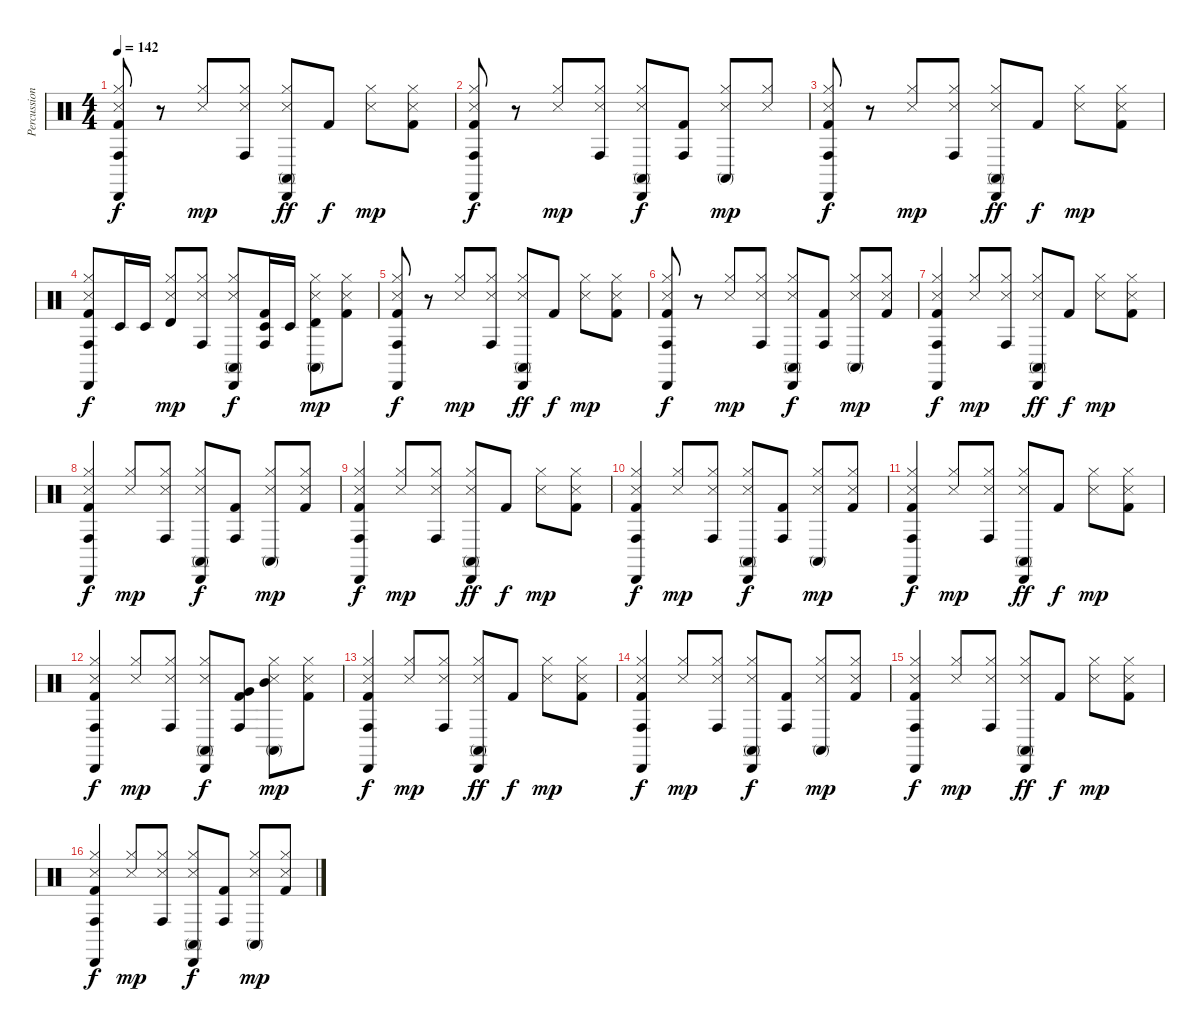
\track ("Percussion" "Percussion") {instrument percussion}
\staff {score}
\articulation defaults
\ts (4 4)
\tempo 142
\clef neutral
\ks c
("Conga high (hit)" "Cabasa (hit)" "Hi-Hat (closed)" "Snare (side stick) 3" "Kick (hit) 2").8{dy f} r.8 ("Hi-Hat (closed)" "Snare (side stick) 3").8{dy mp} ("Conga high (hit)" "Hi-Hat (closed)" "Snare (side stick) 3").8 ("Conga high (mute)" "Cabasa (hit)" "Hi-Hat (closed)" "Snare (side stick) 3").8{dy ff} "Kick (hit) 2".8{dy f} ("Hi-Hat (closed)" "Snare (side stick) 3").8{dy mp} ("Hi-Hat (closed)" "Snare (side stick) 3" "Kick (hit) 2").8 |
("Conga high (hit)" "Cabasa (hit)" "Hi-Hat (closed)" "Snare (side stick) 3" "Kick (hit) 2").8{dy f} r.8 ("Hi-Hat (closed)" "Snare (side stick) 3").8{dy mp} ("Conga high (hit)" "Hi-Hat (closed)" "Snare (side stick) 3").8 ("Conga high (mute)" "Cabasa (hit)" "Hi-Hat (closed)" "Snare (side stick) 3").8{dy f} ("Conga high (hit)" "Kick (hit) 2").8 ("Conga high (mute)" "Hi-Hat (closed)" "Snare (side stick) 3").8{dy mp} ("Hi-Hat (closed)" "Snare (side stick) 3").8 |
("Conga high (hit)" "Cabasa (hit)" "Hi-Hat (closed)" "Snare (side stick) 3" "Kick (hit) 2").8{dy f} r.8 ("Hi-Hat (closed)" "Snare (side stick) 3").8{dy mp} ("Conga high (hit)" "Hi-Hat (closed)" "Snare (side stick) 3").8 ("Conga high (mute)" "Cabasa (hit)" "Hi-Hat (closed)" "Snare (side stick) 3").8{dy ff} "Kick (hit) 2".8{dy f} ("Hi-Hat (closed)" "Snare (side stick) 3").8{dy mp} ("Hi-Hat (closed)" "Snare (side stick) 3" "Kick (hit) 2").8 |
("Conga high (hit)" "Cabasa (hit)" "Hi-Hat (closed)" "Snare (side stick) 3" "Kick (hit) 2").8{dy f} "Timbale low (hit)".16 "Timbale low (hit)".16 ("Timbale high (hit)" "Hi-Hat (closed)" "Snare (side stick) 3").8{dy mp} ("Conga high (hit)" "Hi-Hat (closed)" "Snare (side stick) 3").8 ("Conga high (mute)" "Cabasa (hit)" "Hi-Hat (closed)" "Snare (side stick) 3").8{dy f} ("Timbale low (hit)" "Conga high (hit)" "Kick (hit) 2").16 "Timbale low (hit)".16 ("Timbale high (hit)" "Conga high (mute)" "Hi-Hat (closed)" "Snare (side stick) 3").8{dy mp} ("Hi-Hat (closed)" "Snare (side stick) 3" "Kick (hit) 2").8 |
("Conga high (hit)" "Cabasa (hit)" "Hi-Hat (closed)" "Snare (side stick) 3" "Kick (hit) 2").8{dy f} r.8 ("Hi-Hat (closed)" "Snare (side stick) 3").8{dy mp} ("Conga high (hit)" "Hi-Hat (closed)" "Snare (side stick) 3").8 ("Conga high (mute)" "Cabasa (hit)" "Hi-Hat (closed)" "Snare (side stick) 3").8{dy ff} "Kick (hit) 2".8{dy f} ("Hi-Hat (closed)" "Snare (side stick) 3").8{dy mp} ("Hi-Hat (closed)" "Snare (side stick) 3" "Kick (hit) 2").8 |
("Conga high (hit)" "Cabasa (hit)" "Hi-Hat (closed)" "Snare (side stick) 3" "Kick (hit) 2").8{dy f} r.8 ("Hi-Hat (closed)" "Snare (side stick) 3").8{dy mp} ("Conga high (hit)" "Hi-Hat (closed)" "Snare (side stick) 3").8 ("Conga high (mute)" "Cabasa (hit)" "Hi-Hat (closed)" "Snare (side stick) 3").8{dy f} ("Conga high (hit)" "Kick (hit) 2").8 ("Conga high (mute)" "Hi-Hat (closed)" "Snare (side stick) 3").8{dy mp} ("Hi-Hat (closed)" "Snare (side stick) 3" "Kick (hit) 2").8 |
("Conga high (hit)" "Cabasa (hit)" "Hi-Hat (closed)" "Snare (side stick) 3" "Kick (hit) 2").4{dy f} ("Hi-Hat (closed)" "Snare (side stick) 3").8{dy mp} ("Conga high (hit)" "Hi-Hat (closed)" "Snare (side stick) 3").8 ("Conga high (mute)" "Cabasa (hit)" "Hi-Hat (closed)" "Snare (side stick) 3").8{dy ff} "Kick (hit) 2".8{dy f} ("Hi-Hat (closed)" "Snare (side stick) 3").8{dy mp} ("Hi-Hat (closed)" "Snare (side stick) 3" "Kick (hit) 2").8 |
("Conga high (hit)" "Cabasa (hit)" "Hi-Hat (closed)" "Snare (side stick) 3" "Kick (hit) 2").4{dy f} ("Hi-Hat (closed)" "Snare (side stick) 3").8{dy mp} ("Conga high (hit)" "Hi-Hat (closed)" "Snare (side stick) 3").8 ("Conga high (mute)" "Cabasa (hit)" "Hi-Hat (closed)" "Snare (side stick) 3").8{dy f} ("Conga high (hit)" "Kick (hit) 2").8 ("Conga high (mute)" "Hi-Hat (closed)" "Snare (side stick) 3").8{dy mp} ("Hi-Hat (closed)" "Snare (side stick) 3" "Kick (hit) 2").8 |
("Conga high (hit)" "Cabasa (hit)" "Hi-Hat (closed)" "Snare (side stick) 3" "Kick (hit) 2").4{dy f} ("Hi-Hat (closed)" "Snare (side stick) 3").8{dy mp} ("Conga high (hit)" "Hi-Hat (closed)" "Snare (side stick) 3").8 ("Conga high (mute)" "Cabasa (hit)" "Hi-Hat (closed)" "Snare (side stick) 3").8{dy ff} "Kick (hit) 2".8{dy f} ("Hi-Hat (closed)" "Snare (side stick) 3").8{dy mp} ("Hi-Hat (closed)" "Snare (side stick) 3" "Kick (hit) 2").8 |
("Conga high (hit)" "Cabasa (hit)" "Hi-Hat (closed)" "Snare (side stick) 3" "Kick (hit) 2").4{dy f} ("Hi-Hat (closed)" "Snare (side stick) 3").8{dy mp} ("Conga high (hit)" "Hi-Hat (closed)" "Snare (side stick) 3").8 ("Conga high (mute)" "Cabasa (hit)" "Hi-Hat (closed)" "Snare (side stick) 3").8{dy f} ("Conga high (hit)" "Kick (hit) 2").8 ("Conga high (mute)" "Hi-Hat (closed)" "Snare (side stick) 3").8{dy mp} ("Hi-Hat (closed)" "Snare (side stick) 3" "Kick (hit) 2").8 |
("Conga high (hit)" "Cabasa (hit)" "Hi-Hat (closed)" "Snare (side stick) 3" "Kick (hit) 2").4{dy f} ("Hi-Hat (closed)" "Snare (side stick) 3").8{dy mp} ("Conga high (hit)" "Hi-Hat (closed)" "Snare (side stick) 3").8 ("Conga high (mute)" "Cabasa (hit)" "Hi-Hat (closed)" "Snare (side stick) 3").8{dy ff} "Kick (hit) 2".8{dy f} ("Hi-Hat (closed)" "Snare (side stick) 3").8{dy mp} ("Hi-Hat (closed)" "Snare (side stick) 3" "Kick (hit) 2").8 |
("Conga high (hit)" "Cabasa (hit)" "Hi-Hat (closed)" "Snare (side stick) 3" "Kick (hit) 2").4{dy f} ("Hi-Hat (closed)" "Snare (side stick) 3").8{dy mp} ("Conga high (hit)" "Hi-Hat (closed)" "Snare (side stick) 3").8 ("Conga high (mute)" "Cabasa (hit)" "Hi-Hat (closed)" "Snare (side stick) 3").8{dy f} ("Conga high (hit)" "Very Low Tom (hit)" "Kick (hit) 2").8 ("Conga high (mute)" "Mid Tom (hit)" "Hi-Hat (closed)" "Snare (side stick) 3").8{dy mp} ("Hi-Hat (closed)" "Snare (side stick) 3" "Kick (hit) 2").8 |
("Conga high (hit)" "Cabasa (hit)" "Hi-Hat (closed)" "Snare (side stick) 3" "Kick (hit) 2").4{dy f} ("Hi-Hat (closed)" "Snare (side stick) 3").8{dy mp} ("Conga high (hit)" "Hi-Hat (closed)" "Snare (side stick) 3").8 ("Conga high (mute)" "Cabasa (hit)" "Hi-Hat (closed)" "Snare (side stick) 3").8{dy ff} "Kick (hit) 2".8{dy f} ("Hi-Hat (closed)" "Snare (side stick) 3").8{dy mp} ("Hi-Hat (closed)" "Snare (side stick) 3" "Kick (hit) 2").8 |
("Conga high (hit)" "Cabasa (hit)" "Hi-Hat (closed)" "Snare (side stick) 3" "Kick (hit) 2").4{dy f} ("Hi-Hat (closed)" "Snare (side stick) 3").8{dy mp} ("Conga high (hit)" "Hi-Hat (closed)" "Snare (side stick) 3").8 ("Conga high (mute)" "Cabasa (hit)" "Hi-Hat (closed)" "Snare (side stick) 3").8{dy f} ("Conga high (hit)" "Kick (hit) 2").8 ("Conga high (mute)" "Hi-Hat (closed)" "Snare (side stick) 3").8{dy mp} ("Hi-Hat (closed)" "Snare (side stick) 3" "Kick (hit) 2").8 |
("Conga high (hit)" "Cabasa (hit)" "Hi-Hat (closed)" "Snare (side stick) 3" "Kick (hit) 2").4{dy f} ("Hi-Hat (closed)" "Snare (side stick) 3").8{dy mp} ("Conga high (hit)" "Hi-Hat (closed)" "Snare (side stick) 3").8 ("Conga high (mute)" "Cabasa (hit)" "Hi-Hat (closed)" "Snare (side stick) 3").8{dy ff} "Kick (hit) 2".8{dy f} ("Hi-Hat (closed)" "Snare (side stick) 3").8{dy mp} ("Hi-Hat (closed)" "Snare (side stick) 3" "Kick (hit) 2").8 |
("Conga high (hit)" "Cabasa (hit)" "Hi-Hat (closed)" "Snare (side stick) 3" "Kick (hit) 2").4{dy f} ("Hi-Hat (closed)" "Snare (side stick) 3").8{dy mp} ("Conga high (hit)" "Hi-Hat (closed)" "Snare (side stick) 3").8 ("Conga high (mute)" "Cabasa (hit)" "Hi-Hat (closed)" "Snare (side stick) 3").8{dy f} ("Conga high (hit)" "Kick (hit) 2").8 ("Conga high (mute)" "Hi-Hat (closed)" "Snare (side stick) 3").8{dy mp} ("Hi-Hat (closed)" "Snare (side stick) 3" "Kick (hit) 2").8
